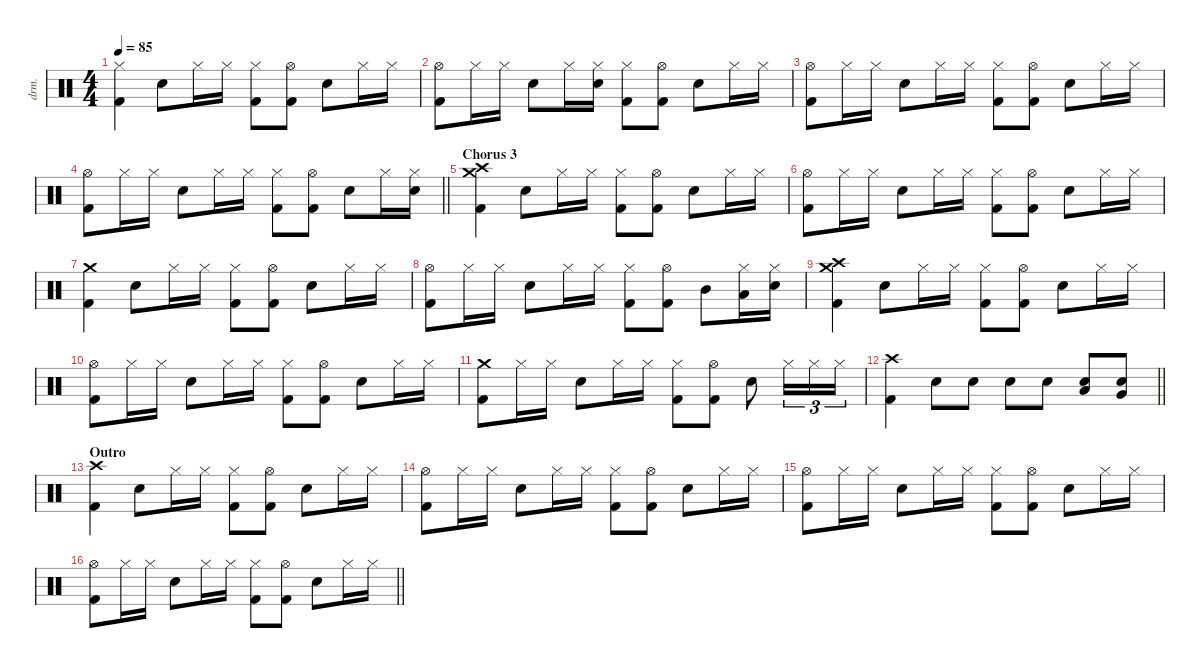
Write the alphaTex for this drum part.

\defaultSystemsLayout 4
\hideDynamics
\bracketExtendMode nobrackets
\otherSystemsTrackNameOrientation horizontal
\track ("Drums" "drm.") {defaultSystemsLayout 4 instrument percussion}
\staff {score}
\articulation defaults
\ts (4 4)
\tempo 85
\clef neutral
\ks c
("Hi-Hat (closed)" "Kick (hit) 2").4{dy f} "Snare (hit) 2".8 "Hi-Hat (closed)".16 "Hi-Hat (closed)".16 ("Hi-Hat (closed)" "Kick (hit) 2").8 ("Hi-Hat (open)" "Kick (hit) 2").8 "Snare (hit) 2".8 "Hi-Hat (closed)".16 "Hi-Hat (closed)".16 |
("Hi-Hat (open)" "Kick (hit) 2").8 "Hi-Hat (closed)".16 "Hi-Hat (closed)".16 "Snare (hit) 2".8 "Hi-Hat (closed)".16 ("Hi-Hat (closed)" "Snare (hit) 2").16 ("Hi-Hat (closed)" "Kick (hit) 2").8 ("Hi-Hat (open)" "Kick (hit) 2").8 "Snare (hit) 2".8 "Hi-Hat (closed)".16 "Hi-Hat (closed)".16 |
("Hi-Hat (open)" "Kick (hit) 2").8 "Hi-Hat (closed)".16 "Hi-Hat (closed)".16 "Snare (hit) 2".8 "Hi-Hat (closed)".16 "Hi-Hat (closed)".16 ("Hi-Hat (closed)" "Kick (hit) 2").8 ("Hi-Hat (open)" "Kick (hit) 2").8 "Snare (hit) 2".8 "Hi-Hat (closed)".16 "Hi-Hat (closed)".16 |
\barLineRight lightlight
("Hi-Hat (open)" "Kick (hit) 2").8 "Hi-Hat (closed)".16 "Hi-Hat (closed)".16 "Snare (hit) 2".8 "Hi-Hat (closed)".16 "Hi-Hat (closed)".16 ("Hi-Hat (closed)" "Kick (hit) 2").8 ("Hi-Hat (open)" "Kick (hit) 2").8 "Snare (hit) 2".8 "Hi-Hat (closed)".16 ("Hi-Hat (closed)" "Snare (hit) 2").16 |
\section ("" "Chorus 3")
("Crash medium (hit)" "Crash high (hit)" "Kick (hit) 2").4 "Snare (hit) 2".8 "Hi-Hat (closed)".16 "Hi-Hat (closed)".16 ("Hi-Hat (closed)" "Kick (hit) 2").8 ("Hi-Hat (open)" "Kick (hit) 2").8 "Snare (hit) 2".8 "Hi-Hat (closed)".16 "Hi-Hat (closed)".16 |
("Hi-Hat (open)" "Kick (hit) 2").8 "Hi-Hat (closed)".16 "Hi-Hat (closed)".16 "Snare (hit) 2".8 "Hi-Hat (closed)".16 "Hi-Hat (closed)".16 ("Hi-Hat (closed)" "Kick (hit) 2").8 ("Hi-Hat (open)" "Kick (hit) 2").8 "Snare (hit) 2".8 "Hi-Hat (closed)".16 "Hi-Hat (closed)".16 |
("Crash medium (hit)" "Kick (hit) 2").4 "Snare (hit) 2".8 "Hi-Hat (closed)".16 "Hi-Hat (closed)".16 ("Hi-Hat (closed)" "Kick (hit) 2").8 ("Hi-Hat (open)" "Kick (hit) 2").8 "Snare (hit) 2".8 "Hi-Hat (closed)".16 "Hi-Hat (closed)".16 |
("Hi-Hat (open)" "Kick (hit) 2").8 "Hi-Hat (closed)".16 "Hi-Hat (closed)".16 "Snare (hit) 2".8 "Hi-Hat (closed)".16 "Hi-Hat (closed)".16 ("Hi-Hat (closed)" "Kick (hit) 2").8 ("Hi-Hat (open)" "Kick (hit) 2").8 "Mid Tom (hit)".8 ("Hi-Hat (closed)" "Low Tom (hit)").16 ("Hi-Hat (closed)" "Snare (hit) 2").16 |
("Crash medium (hit)" "Crash high (hit)" "Kick (hit) 2").4 "Snare (hit) 2".8 "Hi-Hat (closed)".16 "Hi-Hat (closed)".16 ("Hi-Hat (closed)" "Kick (hit) 2").8 ("Hi-Hat (open)" "Kick (hit) 2").8 "Snare (hit) 2".8 "Hi-Hat (closed)".16 "Hi-Hat (closed)".16 |
("Hi-Hat (open)" "Kick (hit) 2").8 "Hi-Hat (closed)".16 "Hi-Hat (closed)".16 "Snare (hit) 2".8 "Hi-Hat (closed)".16 "Hi-Hat (closed)".16 ("Hi-Hat (closed)" "Kick (hit) 2").8 ("Hi-Hat (open)" "Kick (hit) 2").8 "Snare (hit) 2".8 "Hi-Hat (closed)".16 "Hi-Hat (closed)".16 |
("Crash medium (hit)" "Kick (hit) 2").8 "Hi-Hat (closed)".16 "Hi-Hat (closed)".16 "Snare (hit) 2".8 "Hi-Hat (closed)".16 "Hi-Hat (closed)".16 ("Hi-Hat (closed)" "Kick (hit) 2").8 ("Hi-Hat (open)" "Kick (hit) 2").8 "Snare (hit) 2".8 "Hi-Hat (closed)".16{tu (3 2)} "Hi-Hat (closed)".16{tu (3 2)} "Hi-Hat (closed)".16{tu (3 2)} |
\barLineRight lightlight
("Crash high (hit)" "Kick (hit) 2").4 "Snare (hit) 2".8{dy p} "Snare (hit) 2".8{dy mp} "Snare (hit) 2".8{dy mf} "Snare (hit) 2".8 ("Snare (hit) 2" "Low Tom (hit)").8{dy f} ("Snare (hit) 2" "Very Low Tom (hit)").8 |
\section ("" "Outro")
("Crash high (hit)" "Kick (hit) 2").4 "Snare (hit) 2".8 "Hi-Hat (closed)".16 "Hi-Hat (closed)".16 ("Hi-Hat (closed)" "Kick (hit) 2").8 ("Hi-Hat (open)" "Kick (hit) 2").8 "Snare (hit) 2".8 "Hi-Hat (closed)".16 "Hi-Hat (closed)".16 |
("Hi-Hat (open)" "Kick (hit) 2").8 "Hi-Hat (closed)".16 "Hi-Hat (closed)".16 "Snare (hit) 2".8 "Hi-Hat (closed)".16 "Hi-Hat (closed)".16 ("Hi-Hat (closed)" "Kick (hit) 2").8 ("Hi-Hat (open)" "Kick (hit) 2").8 "Snare (hit) 2".8 "Hi-Hat (closed)".16 "Hi-Hat (closed)".16 |
("Hi-Hat (open)" "Kick (hit) 2").8 "Hi-Hat (closed)".16 "Hi-Hat (closed)".16 "Snare (hit) 2".8 "Hi-Hat (closed)".16 "Hi-Hat (closed)".16 ("Hi-Hat (closed)" "Kick (hit) 2").8 ("Hi-Hat (open)" "Kick (hit) 2").8 "Snare (hit) 2".8 "Hi-Hat (closed)".16 "Hi-Hat (closed)".16 |
\barLineRight lightlight
("Hi-Hat (open)" "Kick (hit) 2").8 "Hi-Hat (closed)".16 "Hi-Hat (closed)".16 "Snare (hit) 2".8 "Hi-Hat (closed)".16 "Hi-Hat (closed)".16 ("Hi-Hat (closed)" "Kick (hit) 2").8 ("Hi-Hat (open)" "Kick (hit) 2").8 "Snare (hit) 2".8 "Hi-Hat (closed)".16 "Hi-Hat (closed)".16
